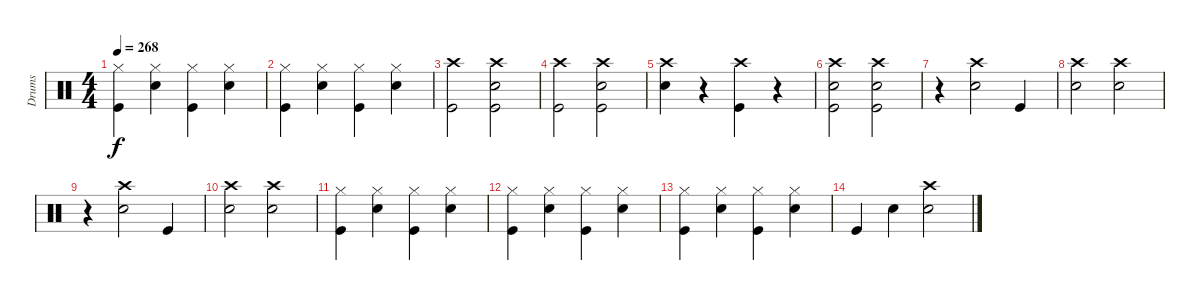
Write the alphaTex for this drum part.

\track ("Drums" "Drums") {instrument percussion}
\staff {score}
\articulation defaults
\ts (4 4)
\tempo 268
\clef neutral
\ks c
("Hi-Hat (closed)" "Kick (hit)").4{dy f} ("Hi-Hat (closed)" "Electric Snare (hit)").4 ("Hi-Hat (closed)" "Kick (hit)").4 ("Hi-Hat (closed)" "Electric Snare (hit)").4 |
("Hi-Hat (closed)" "Kick (hit)").4 ("Hi-Hat (closed)" "Electric Snare (hit)").4 ("Hi-Hat (closed)" "Kick (hit)").4 ("Hi-Hat (closed)" "Electric Snare (hit)").4 |
("Crash high (hit)" "Kick (hit)").2 ("Crash high (hit)" "Electric Snare (hit)" "Kick (hit)").2 |
("Crash high (hit)" "Kick (hit)").2 ("Crash high (hit)" "Electric Snare (hit)" "Kick (hit)").2 |
("Crash high (hit)" "Electric Snare (hit)").4 r.4 ("Crash high (hit)" "Kick (hit)").4 r.4 |
("Crash high (hit)" "Electric Snare (hit)" "Kick (hit)").2 ("Crash high (hit)" "Electric Snare (hit)" "Kick (hit)").2 |
r.4 ("Crash high (hit)" "Electric Snare (hit)").2 "Kick (hit)".4 |
("Crash high (hit)" "Electric Snare (hit)").2 ("Crash high (hit)" "Electric Snare (hit)").2 |
r.4 ("Crash high (hit)" "Electric Snare (hit)").2 "Kick (hit)".4 |
("Crash high (hit)" "Electric Snare (hit)").2 ("Crash high (hit)" "Electric Snare (hit)").2 |
("Hi-Hat (closed)" "Kick (hit)").4 ("Hi-Hat (closed)" "Electric Snare (hit)").4 ("Hi-Hat (closed)" "Kick (hit)").4 ("Hi-Hat (closed)" "Electric Snare (hit)").4 |
("Hi-Hat (closed)" "Kick (hit)").4 ("Hi-Hat (closed)" "Electric Snare (hit)").4 ("Hi-Hat (closed)" "Kick (hit)").4 ("Hi-Hat (closed)" "Electric Snare (hit)").4 |
("Hi-Hat (closed)" "Kick (hit)").4 ("Hi-Hat (closed)" "Electric Snare (hit)").4 ("Hi-Hat (closed)" "Kick (hit)").4 ("Hi-Hat (closed)" "Electric Snare (hit)").4 |
"Kick (hit)".4 "Electric Snare (hit)".4 ("Crash high (hit)" "Electric Snare (hit)").2
